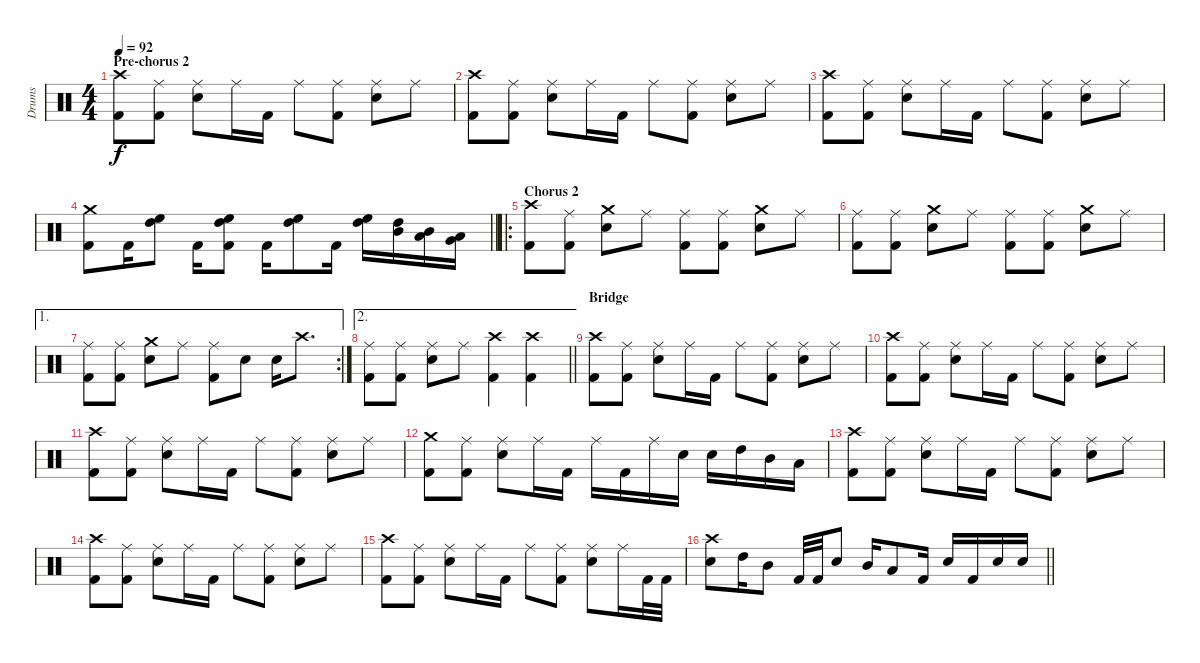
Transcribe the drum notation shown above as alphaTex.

\track ("Drums" "Drums") {instrument percussion}
\staff {score}
\articulation defaults
\ts (4 4)
\section ("" "Pre-chorus 2")
\tempo 92
\clef neutral
\ks c
("Crash high (hit)" "Kick (hit) 2").8{dy f} ("Ride (middle)" "Kick (hit) 2").8 ("Ride (middle)" "Snare (hit) 2").8 "Ride (middle)".16 "Kick (hit) 2".16 "Ride (middle)".8 ("Ride (middle)" "Kick (hit) 2").8 ("Ride (middle)" "Snare (hit) 2").8 "Ride (middle)".8 |
("Crash high (hit)" "Kick (hit) 2").8 ("Ride (middle)" "Kick (hit) 2").8 ("Ride (middle)" "Snare (hit) 2").8 "Ride (middle)".16 "Kick (hit) 2".16 "Ride (middle)".8 ("Ride (middle)" "Kick (hit) 2").8 ("Ride (middle)" "Snare (hit) 2").8 "Ride (middle)".8 |
("Crash high (hit)" "Kick (hit) 2").8 ("Ride (middle)" "Kick (hit) 2").8 ("Ride (middle)" "Snare (hit) 2").8 "Ride (middle)".16 "Kick (hit) 2".16 "Ride (middle)".8 ("Ride (middle)" "Kick (hit) 2").8 ("Ride (middle)" "Snare (hit) 2").8 "Ride (middle)".8 |
\barLineRight lightlight
("Crash medium (hit)" "Kick (hit) 2").8 "Kick (hit) 2".16 ("High Tom (hit)" "High Floor Tom (hit)").8 "Kick (hit) 2".16 ("High Tom (hit)" "High Floor Tom (hit)" "Kick (hit) 2").8 "Kick (hit) 2".16 ("High Tom (hit)" "High Floor Tom (hit)").8 "Kick (hit) 2".16 ("High Tom (hit)" "High Floor Tom (hit)").16 ("Mid Tom (hit)" "High Tom (hit)").16 ("Low Tom (hit)" "Mid Tom (hit)").16 ("Very Low Tom (hit)" "Low Tom (hit)").16 |
\ro
\section ("" "Chorus 2")
("Crash high (hit)" "Kick (hit) 2").8 ("Ride (middle)" "Kick (hit) 2").8 ("Crash medium (hit)" "Snare (hit) 2").8 "Ride (middle)".8 ("Ride (middle)" "Kick (hit) 2").8 ("Ride (middle)" "Kick (hit) 2").8 ("Crash medium (hit)" "Snare (hit) 2").8 "Ride (middle)".8 |
("Ride (middle)" "Kick (hit) 2").8 ("Ride (middle)" "Kick (hit) 2").8 ("Crash medium (hit)" "Snare (hit) 2").8 "Ride (middle)".8 ("Ride (middle)" "Kick (hit) 2").8 ("Ride (middle)" "Kick (hit) 2").8 ("Crash medium (hit)" "Snare (hit) 2").8 "Ride (middle)".8 |
\ae 1
\rc 2
("Ride (middle)" "Kick (hit) 2").8 ("Ride (middle)" "Kick (hit) 2").8 ("Crash medium (hit)" "Snare (hit) 2").8 "Ride (middle)".8 ("Ride (middle)" "Kick (hit) 2").8 "Snare (hit) 2".8 "Snare (hit) 2".16 "Crash high (hit)".8{d} |
\ae 2
\barLineRight lightlight
("Ride (middle)" "Kick (hit) 2").8 ("Ride (middle)" "Kick (hit) 2").8 ("Ride (middle)" "Snare (hit) 2").8 "Ride (middle)".8 ("Crash high (hit)" "Kick (hit) 2").4 ("Crash high (hit)" "Kick (hit) 2").4 |
\section ("" "Bridge")
("Crash high (hit)" "Kick (hit) 2").8 ("Ride (middle)" "Kick (hit) 2").8 ("Ride (middle)" "Snare (hit) 2").8 "Ride (middle)".16 "Kick (hit) 2".16 "Ride (middle)".8 ("Ride (middle)" "Kick (hit) 2").8 ("Ride (middle)" "Snare (hit) 2").8 "Ride (middle)".8 |
("Crash high (hit)" "Kick (hit) 2").8 ("Ride (middle)" "Kick (hit) 2").8 ("Ride (middle)" "Snare (hit) 2").8 "Ride (middle)".16 "Kick (hit) 2".16 "Ride (middle)".8 ("Ride (middle)" "Kick (hit) 2").8 ("Ride (middle)" "Snare (hit) 2").8 "Ride (middle)".8 |
("Crash high (hit)" "Kick (hit) 2").8 ("Ride (middle)" "Kick (hit) 2").8 ("Ride (middle)" "Snare (hit) 2").8 "Ride (middle)".16 "Kick (hit) 2".16 "Ride (middle)".8 ("Ride (middle)" "Kick (hit) 2").8 ("Ride (middle)" "Snare (hit) 2").8 "Ride (middle)".8 |
("Crash medium (hit)" "Kick (hit) 2").8 ("Ride (middle)" "Kick (hit) 2").8 ("Ride (middle)" "Snare (hit) 2").8 "Ride (middle)".16 "Kick (hit) 2".16 "Ride (middle)".16 "Kick (hit) 2".16 "Ride (middle)".16 "Snare (hit) 2".16 "Snare (hit) 2".16 "High Tom (hit)".16 "Mid Tom (hit)".16 "Low Tom (hit)".16 |
("Crash high (hit)" "Kick (hit) 2").8 ("Ride (middle)" "Kick (hit) 2").8 ("Ride (middle)" "Snare (hit) 2").8 "Ride (middle)".16 "Kick (hit) 2".16 "Ride (middle)".8 ("Ride (middle)" "Kick (hit) 2").8 ("Ride (middle)" "Snare (hit) 2").8 "Ride (middle)".8 |
("Crash high (hit)" "Kick (hit) 2").8 ("Ride (middle)" "Kick (hit) 2").8 ("Ride (middle)" "Snare (hit) 2").8 "Ride (middle)".16 "Kick (hit) 2".16 "Ride (middle)".8 ("Ride (middle)" "Kick (hit) 2").8 ("Ride (middle)" "Snare (hit) 2").8 "Ride (middle)".8 |
("Crash high (hit)" "Kick (hit) 2").8 ("Ride (middle)" "Kick (hit) 2").8 ("Ride (middle)" "Snare (hit) 2").8 "Ride (middle)".16 "Kick (hit) 2".16 "Ride (middle)".8 ("Ride (middle)" "Kick (hit) 2").8 ("Ride (middle)" "Snare (hit) 2").8 "Ride (middle)".16 "Kick (hit) 2".32 "Kick (hit) 2".32 |
\barLineRight lightlight
("Crash high (hit)" "Snare (hit) 2").8 "High Tom (hit)".16 "Mid Tom (hit)".8 "Kick (hit) 2".32 "Kick (hit) 2".32 "Snare (hit) 2".8 "Mid Tom (hit)".16 "Low Tom (hit)".8 "Kick (hit) 2".16 "Snare (hit) 2".16 "Kick (hit) 2".16 "Snare (hit) 2".16 "Snare (hit) 2".16
